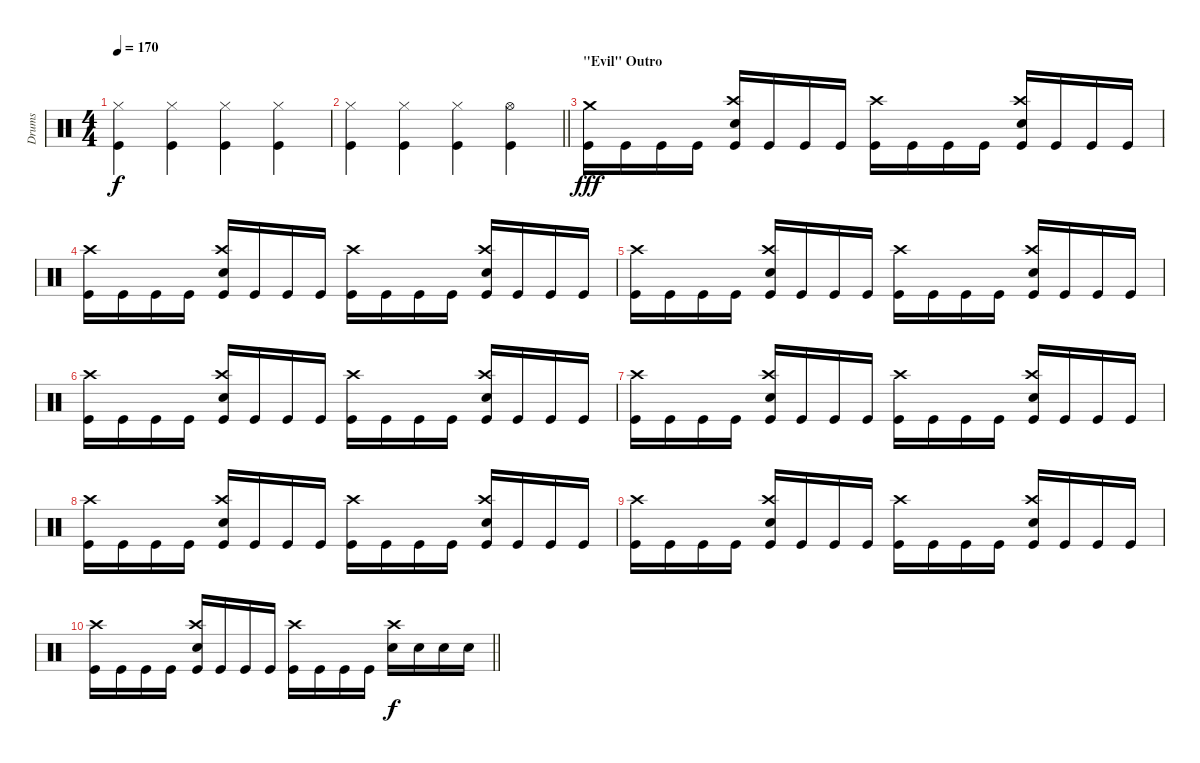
\track ("Drums" "Drums") {instrument percussion}
\staff {score}
\articulation defaults
\ts (4 4)
\tempo 170
\clef neutral
\ks c
("Hi-Hat (closed)" "Kick (hit)").4{dy f} ("Hi-Hat (closed)" "Kick (hit)").4 ("Hi-Hat (closed)" "Kick (hit)").4 ("Hi-Hat (closed)" "Kick (hit)").4 |
\barLineRight lightlight
("Hi-Hat (closed)" "Kick (hit)").4 ("Hi-Hat (closed)" "Kick (hit)").4 ("Hi-Hat (closed)" "Kick (hit)").4 ("Hi-Hat (open)" "Kick (hit)").4 |
\section ("" "\"Evil\" Outro")
("Crash medium (hit)" "Kick (hit)").16{dy fff} "Kick (hit)".16 "Kick (hit)".16 "Kick (hit)".16 ("Crash high (hit)" "Snare (hit) 2" "Kick (hit)").16 "Kick (hit)".16 "Kick (hit)".16 "Kick (hit)".16 ("Crash high (hit)" "Kick (hit)").16 "Kick (hit)".16 "Kick (hit)".16 "Kick (hit)".16 ("Crash high (hit)" "Snare (hit) 2" "Kick (hit)").16 "Kick (hit)".16 "Kick (hit)".16 "Kick (hit)".16 |
("Crash high (hit)" "Kick (hit)").16 "Kick (hit)".16 "Kick (hit)".16 "Kick (hit)".16 ("Crash high (hit)" "Snare (hit) 2" "Kick (hit)").16 "Kick (hit)".16 "Kick (hit)".16 "Kick (hit)".16 ("Crash high (hit)" "Kick (hit)").16 "Kick (hit)".16 "Kick (hit)".16 "Kick (hit)".16 ("Crash high (hit)" "Snare (hit) 2" "Kick (hit)").16 "Kick (hit)".16 "Kick (hit)".16 "Kick (hit)".16 |
("Crash high (hit)" "Kick (hit)").16 "Kick (hit)".16 "Kick (hit)".16 "Kick (hit)".16 ("Crash high (hit)" "Snare (hit) 2" "Kick (hit)").16 "Kick (hit)".16 "Kick (hit)".16 "Kick (hit)".16 ("Crash high (hit)" "Kick (hit)").16 "Kick (hit)".16 "Kick (hit)".16 "Kick (hit)".16 ("Crash high (hit)" "Snare (hit) 2" "Kick (hit)").16 "Kick (hit)".16 "Kick (hit)".16 "Kick (hit)".16 |
("Crash high (hit)" "Kick (hit)").16 "Kick (hit)".16 "Kick (hit)".16 "Kick (hit)".16 ("Crash high (hit)" "Snare (hit) 2" "Kick (hit)").16 "Kick (hit)".16 "Kick (hit)".16 "Kick (hit)".16 ("Crash high (hit)" "Kick (hit)").16 "Kick (hit)".16 "Kick (hit)".16 "Kick (hit)".16 ("Crash high (hit)" "Snare (hit) 2" "Kick (hit)").16 "Kick (hit)".16 "Kick (hit)".16 "Kick (hit)".16 |
("Crash high (hit)" "Kick (hit)").16 "Kick (hit)".16 "Kick (hit)".16 "Kick (hit)".16 ("Crash high (hit)" "Snare (hit) 2" "Kick (hit)").16 "Kick (hit)".16 "Kick (hit)".16 "Kick (hit)".16 ("Crash high (hit)" "Kick (hit)").16 "Kick (hit)".16 "Kick (hit)".16 "Kick (hit)".16 ("Crash high (hit)" "Snare (hit) 2" "Kick (hit)").16 "Kick (hit)".16 "Kick (hit)".16 "Kick (hit)".16 |
("Crash high (hit)" "Kick (hit)").16 "Kick (hit)".16 "Kick (hit)".16 "Kick (hit)".16 ("Crash high (hit)" "Snare (hit) 2" "Kick (hit)").16 "Kick (hit)".16 "Kick (hit)".16 "Kick (hit)".16 ("Crash high (hit)" "Kick (hit)").16 "Kick (hit)".16 "Kick (hit)".16 "Kick (hit)".16 ("Crash high (hit)" "Snare (hit) 2" "Kick (hit)").16 "Kick (hit)".16 "Kick (hit)".16 "Kick (hit)".16 |
("Crash high (hit)" "Kick (hit)").16 "Kick (hit)".16 "Kick (hit)".16 "Kick (hit)".16 ("Crash high (hit)" "Snare (hit) 2" "Kick (hit)").16 "Kick (hit)".16 "Kick (hit)".16 "Kick (hit)".16 ("Crash high (hit)" "Kick (hit)").16 "Kick (hit)".16 "Kick (hit)".16 "Kick (hit)".16 ("Crash high (hit)" "Snare (hit) 2" "Kick (hit)").16 "Kick (hit)".16 "Kick (hit)".16 "Kick (hit)".16 |
\barLineRight lightlight
("Crash high (hit)" "Kick (hit)").16 "Kick (hit)".16 "Kick (hit)".16 "Kick (hit)".16 ("Crash high (hit)" "Snare (hit) 2" "Kick (hit)").16 "Kick (hit)".16 "Kick (hit)".16 "Kick (hit)".16 ("Crash high (hit)" "Kick (hit)").16 "Kick (hit)".16 "Kick (hit)".16 "Kick (hit)".16 ("Crash high (hit)" "Snare (hit) 2").16{dy f} "Snare (hit) 2".16 "Snare (hit) 2".16 "Snare (hit) 2".16
